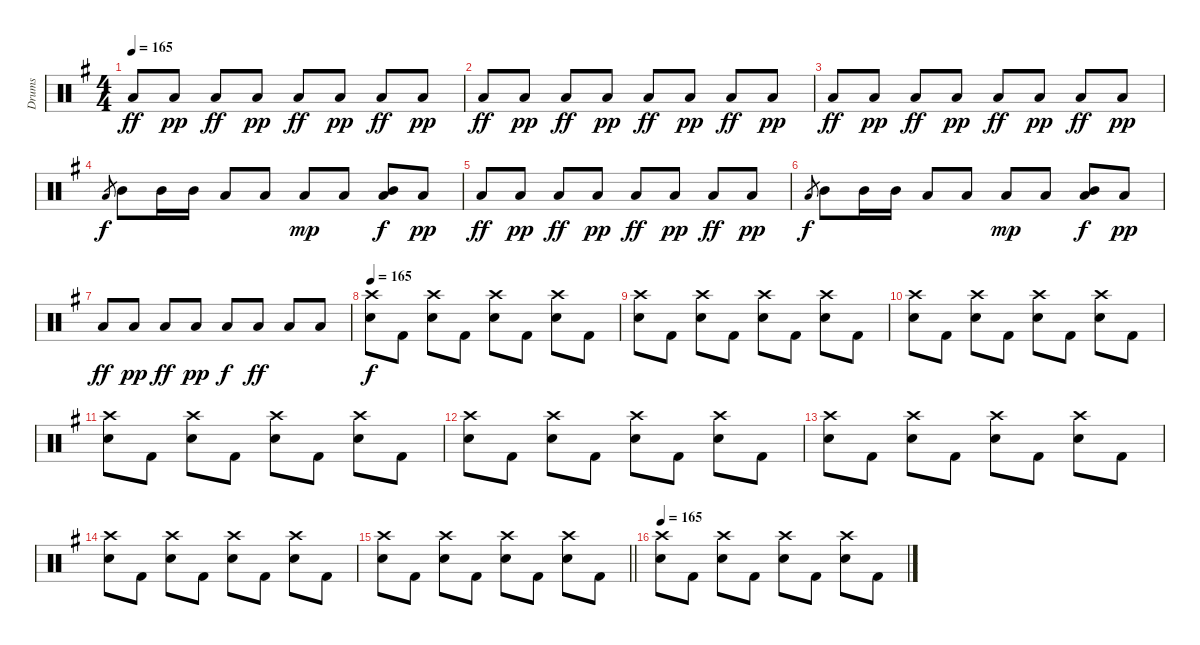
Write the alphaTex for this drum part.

\track ("Drums" "Drums") {instrument percussion}
\staff {score}
\articulation defaults
\ts (4 4)
\tempo 165
\clef neutral
\ks eminor "Low Tom (hit)".8{dy ff} "Low Tom (hit)".8{dy pp} "Low Tom (hit)".8{dy ff} "Low Tom (hit)".8{dy pp} "Low Tom (hit)".8{dy ff} "Low Tom (hit)".8{dy pp} "Low Tom (hit)".8{dy ff} "Low Tom (hit)".8{dy pp}
|
"Low Tom (hit)".8{dy ff} "Low Tom (hit)".8{dy pp} "Low Tom (hit)".8{dy ff} "Low Tom (hit)".8{dy pp} "Low Tom (hit)".8{dy ff} "Low Tom (hit)".8{dy pp} "Low Tom (hit)".8{dy ff} "Low Tom (hit)".8{dy pp} |
"Low Tom (hit)".8{dy ff} "Low Tom (hit)".8{dy pp} "Low Tom (hit)".8{dy ff} "Low Tom (hit)".8{dy pp} "Low Tom (hit)".8{dy ff} "Low Tom (hit)".8{dy pp} "Low Tom (hit)".8{dy ff} "Low Tom (hit)".8{dy pp} |
"Low Tom (hit)".8{gr dy f} "Mid Tom (hit)".8 "Mid Tom (hit)".16 "Mid Tom (hit)".16 "Low Tom (hit)".8 "Low Tom (hit)".8 "Low Tom (hit)".8{dy mp} "Low Tom (hit)".8 ("Mid Tom (hit)" "Low Tom (hit)").8{dy f} "Low Tom (hit)".8{dy pp} |
"Low Tom (hit)".8{dy ff} "Low Tom (hit)".8{dy pp} "Low Tom (hit)".8{dy ff} "Low Tom (hit)".8{dy pp} "Low Tom (hit)".8{dy ff} "Low Tom (hit)".8{dy pp} "Low Tom (hit)".8{dy ff} "Low Tom (hit)".8{dy pp} |
"Low Tom (hit)".8{gr dy f} "Mid Tom (hit)".8 "Mid Tom (hit)".16 "Mid Tom (hit)".16 "Low Tom (hit)".8 "Low Tom (hit)".8 "Low Tom (hit)".8{dy mp} "Low Tom (hit)".8 ("Mid Tom (hit)" "Low Tom (hit)").8{dy f} "Low Tom (hit)".8{dy pp} |
"Low Tom (hit)".8{dy ff} "Low Tom (hit)".8{dy pp} "Low Tom (hit)".8{dy ff} "Low Tom (hit)".8{dy pp} "Low Tom (hit)".8{dy f} "Low Tom (hit)".8{dy ff} "Low Tom (hit)".8 "Low Tom (hit)".8 |
\tempo 165
("Crash high (hit)" "Snare (hit) 2").8{dy f} "Kick (hit) 2".8 ("Crash high (hit)" "Snare (hit) 2").8 "Kick (hit) 2".8 ("Crash high (hit)" "Snare (hit) 2").8 "Kick (hit) 2".8 ("Crash high (hit)" "Snare (hit) 2").8 "Kick (hit) 2".8 |
("Crash high (hit)" "Snare (hit) 2").8 "Kick (hit) 2".8 ("Crash high (hit)" "Snare (hit) 2").8 "Kick (hit) 2".8 ("Crash high (hit)" "Snare (hit) 2").8 "Kick (hit) 2".8 ("Crash high (hit)" "Snare (hit) 2").8 "Kick (hit) 2".8 |
("Crash high (hit)" "Snare (hit) 2").8 "Kick (hit) 2".8 ("Crash high (hit)" "Snare (hit) 2").8 "Kick (hit) 2".8 ("Crash high (hit)" "Snare (hit) 2").8 "Kick (hit) 2".8 ("Crash high (hit)" "Snare (hit) 2").8 "Kick (hit) 2".8 |
("Crash high (hit)" "Snare (hit) 2").8 "Kick (hit) 2".8 ("Crash high (hit)" "Snare (hit) 2").8 "Kick (hit) 2".8 ("Crash high (hit)" "Snare (hit) 2").8 "Kick (hit) 2".8 ("Crash high (hit)" "Snare (hit) 2").8 "Kick (hit) 2".8 |
("Crash high (hit)" "Snare (hit) 2").8 "Kick (hit) 2".8 ("Crash high (hit)" "Snare (hit) 2").8 "Kick (hit) 2".8 ("Crash high (hit)" "Snare (hit) 2").8 "Kick (hit) 2".8 ("Crash high (hit)" "Snare (hit) 2").8 "Kick (hit) 2".8 |
("Crash high (hit)" "Snare (hit) 2").8 "Kick (hit) 2".8 ("Crash high (hit)" "Snare (hit) 2").8 "Kick (hit) 2".8 ("Crash high (hit)" "Snare (hit) 2").8 "Kick (hit) 2".8 ("Crash high (hit)" "Snare (hit) 2").8 "Kick (hit) 2".8 |
("Crash high (hit)" "Snare (hit) 2").8 "Kick (hit) 2".8 ("Crash high (hit)" "Snare (hit) 2").8 "Kick (hit) 2".8 ("Crash high (hit)" "Snare (hit) 2").8 "Kick (hit) 2".8 ("Crash high (hit)" "Snare (hit) 2").8 "Kick (hit) 2".8 |
\barLineRight lightlight
("Crash high (hit)" "Snare (hit) 2").8 "Kick (hit) 2".8 ("Crash high (hit)" "Snare (hit) 2").8 "Kick (hit) 2".8 ("Crash high (hit)" "Snare (hit) 2").8 "Kick (hit) 2".8 ("Crash high (hit)" "Snare (hit) 2").8 "Kick (hit) 2".8 |
\tempo 165
("Crash high (hit)" "Snare (hit) 2").8 "Kick (hit) 2".8 ("Crash high (hit)" "Snare (hit) 2").8 "Kick (hit) 2".8 ("Crash high (hit)" "Snare (hit) 2").8 "Kick (hit) 2".8 ("Crash high (hit)" "Snare (hit) 2").8 "Kick (hit) 2".8
